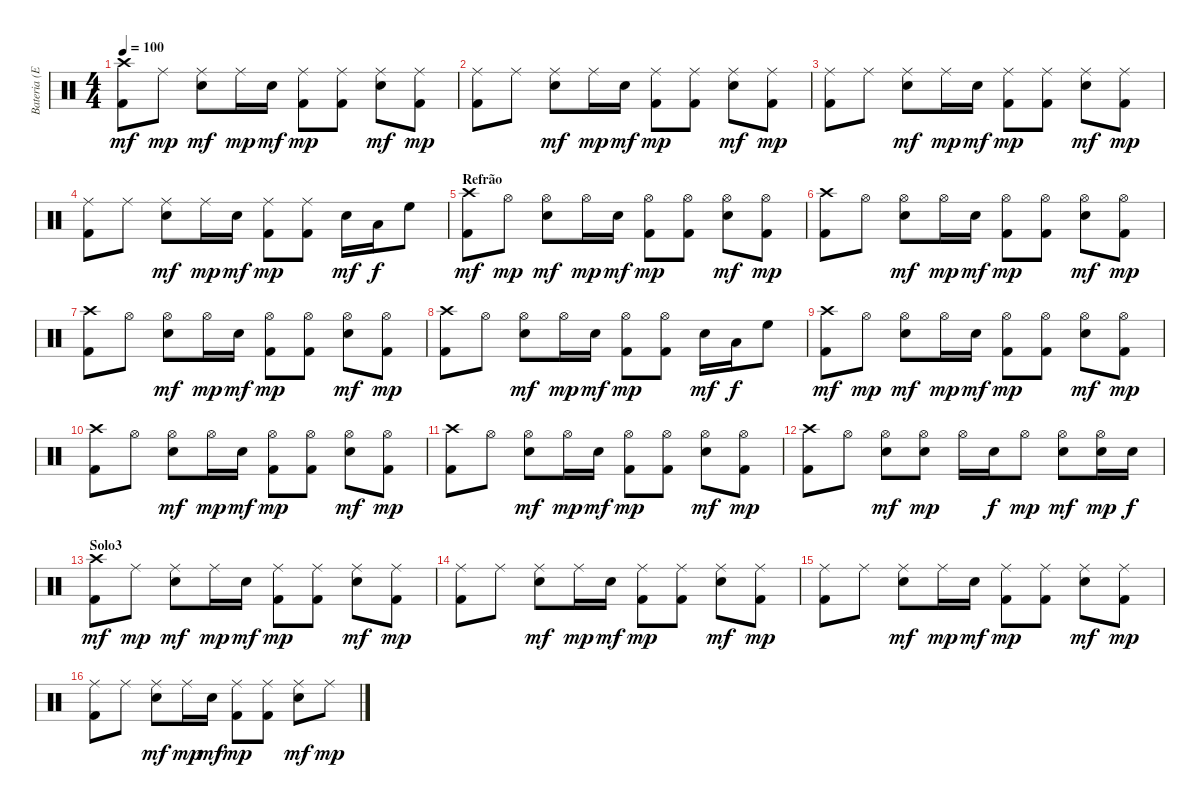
\track ("Bateria (Eduardo)" "Bateria (E") {instrument percussion}
\staff {score}
\articulation defaults
\ts (4 4)
\tempo 100
\clef neutral
\ks c
("Crash high (hit)" "Kick (hit) 2").8{dy mf} "Ride (middle)".8{dy mp} ("Ride (middle)" "Electric Snare (hit)").8{dy mf} "Ride (middle)".16{dy mp} "Electric Snare (hit)".16{dy mf} ("Ride (middle)" "Kick (hit) 2").8{dy mp} ("Ride (middle)" "Kick (hit) 2").8 ("Ride (middle)" "Electric Snare (hit)").8{dy mf} ("Ride (middle)" "Kick (hit) 2").8{dy mp} |
("Ride (middle)" "Kick (hit) 2").8 "Ride (middle)".8 ("Ride (middle)" "Electric Snare (hit)").8{dy mf} "Ride (middle)".16{dy mp} "Electric Snare (hit)".16{dy mf} ("Ride (middle)" "Kick (hit) 2").8{dy mp} ("Ride (middle)" "Kick (hit) 2").8 ("Ride (middle)" "Electric Snare (hit)").8{dy mf} ("Ride (middle)" "Kick (hit) 2").8{dy mp} |
("Ride (middle)" "Kick (hit) 2").8 "Ride (middle)".8 ("Ride (middle)" "Electric Snare (hit)").8{dy mf} "Ride (middle)".16{dy mp} "Electric Snare (hit)".16{dy mf} ("Ride (middle)" "Kick (hit) 2").8{dy mp} ("Ride (middle)" "Kick (hit) 2").8 ("Ride (middle)" "Electric Snare (hit)").8{dy mf} ("Ride (middle)" "Kick (hit) 2").8{dy mp} |
("Ride (middle)" "Kick (hit) 2").8 "Ride (middle)".8 ("Ride (middle)" "Electric Snare (hit)").8{dy mf} "Ride (middle)".16{dy mp} "Electric Snare (hit)".16{dy mf} ("Ride (middle)" "Kick (hit) 2").8{dy mp} ("Ride (middle)" "Kick (hit) 2").8 "Electric Snare (hit)".16{dy mf} "Low Tom (hit)".16{dy f} "High Floor Tom (hit)".8 |
\section ("" "Refrão")
("Crash high (hit)" "Kick (hit) 2").8{dy mf} "Hi-Hat (open)".8{dy mp} ("Hi-Hat (open)" "Electric Snare (hit)").8{dy mf} "Hi-Hat (open)".16{dy mp} "Electric Snare (hit)".16{dy mf} ("Hi-Hat (open)" "Kick (hit) 2").8{dy mp} ("Hi-Hat (open)" "Kick (hit) 2").8 ("Hi-Hat (open)" "Electric Snare (hit)").8{dy mf} ("Hi-Hat (open)" "Kick (hit) 2").8{dy mp} |
("Crash high (hit)" "Kick (hit) 2").8 "Hi-Hat (open)".8 ("Hi-Hat (open)" "Electric Snare (hit)").8{dy mf} "Hi-Hat (open)".16{dy mp} "Electric Snare (hit)".16{dy mf} ("Hi-Hat (open)" "Kick (hit) 2").8{dy mp} ("Hi-Hat (open)" "Kick (hit) 2").8 ("Hi-Hat (open)" "Electric Snare (hit)").8{dy mf} ("Hi-Hat (open)" "Kick (hit) 2").8{dy mp} |
("Crash high (hit)" "Kick (hit) 2").8 "Hi-Hat (open)".8 ("Hi-Hat (open)" "Electric Snare (hit)").8{dy mf} "Hi-Hat (open)".16{dy mp} "Electric Snare (hit)".16{dy mf} ("Hi-Hat (open)" "Kick (hit) 2").8{dy mp} ("Hi-Hat (open)" "Kick (hit) 2").8 ("Hi-Hat (open)" "Electric Snare (hit)").8{dy mf} ("Hi-Hat (open)" "Kick (hit) 2").8{dy mp} |
("Crash high (hit)" "Kick (hit) 2").8 "Hi-Hat (open)".8 ("Hi-Hat (open)" "Electric Snare (hit)").8{dy mf} "Hi-Hat (open)".16{dy mp} "Electric Snare (hit)".16{dy mf} ("Hi-Hat (open)" "Kick (hit) 2").8{dy mp} ("Hi-Hat (open)" "Kick (hit) 2").8 "Electric Snare (hit)".16{dy mf} "Low Tom (hit)".16{dy f} "High Floor Tom (hit)".8 |
("Crash high (hit)" "Kick (hit) 2").8{dy mf} "Hi-Hat (open)".8{dy mp} ("Hi-Hat (open)" "Electric Snare (hit)").8{dy mf} "Hi-Hat (open)".16{dy mp} "Electric Snare (hit)".16{dy mf} ("Hi-Hat (open)" "Kick (hit) 2").8{dy mp} ("Hi-Hat (open)" "Kick (hit) 2").8 ("Hi-Hat (open)" "Electric Snare (hit)").8{dy mf} ("Hi-Hat (open)" "Kick (hit) 2").8{dy mp} |
("Crash high (hit)" "Kick (hit) 2").8 "Hi-Hat (open)".8 ("Hi-Hat (open)" "Electric Snare (hit)").8{dy mf} "Hi-Hat (open)".16{dy mp} "Electric Snare (hit)".16{dy mf} ("Hi-Hat (open)" "Kick (hit) 2").8{dy mp} ("Hi-Hat (open)" "Kick (hit) 2").8 ("Hi-Hat (open)" "Electric Snare (hit)").8{dy mf} ("Hi-Hat (open)" "Kick (hit) 2").8{dy mp} |
("Crash high (hit)" "Kick (hit) 2").8 "Hi-Hat (open)".8 ("Hi-Hat (open)" "Electric Snare (hit)").8{dy mf} "Hi-Hat (open)".16{dy mp} "Electric Snare (hit)".16{dy mf} ("Hi-Hat (open)" "Kick (hit) 2").8{dy mp} ("Hi-Hat (open)" "Kick (hit) 2").8 ("Hi-Hat (open)" "Electric Snare (hit)").8{dy mf} ("Hi-Hat (open)" "Kick (hit) 2").8{dy mp} |
("Crash high (hit)" "Kick (hit) 2").8 "Hi-Hat (open)".8 ("Hi-Hat (open)" "Electric Snare (hit)").8{dy mf} ("Hi-Hat (open)" "Electric Snare (hit)").8{dy mp} "Hi-Hat (open)".16 "Electric Snare (hit)".16{dy f} "Hi-Hat (open)".8{dy mp} ("Hi-Hat (open)" "Electric Snare (hit)").8{dy mf} ("Hi-Hat (open)" "Electric Snare (hit)").16{dy mp} "Electric Snare (hit)".16{dy f} |
\section ("" "Solo3")
("Crash high (hit)" "Kick (hit) 2").8{dy mf} "Ride (middle)".8{dy mp} ("Ride (middle)" "Electric Snare (hit)").8{dy mf} "Ride (middle)".16{dy mp} "Electric Snare (hit)".16{dy mf} ("Ride (middle)" "Kick (hit) 2").8{dy mp} ("Ride (middle)" "Kick (hit) 2").8 ("Ride (middle)" "Electric Snare (hit)").8{dy mf} ("Ride (middle)" "Kick (hit) 2").8{dy mp} |
("Ride (middle)" "Kick (hit) 2").8 "Ride (middle)".8 ("Ride (middle)" "Electric Snare (hit)").8{dy mf} "Ride (middle)".16{dy mp} "Electric Snare (hit)".16{dy mf} ("Ride (middle)" "Kick (hit) 2").8{dy mp} ("Ride (middle)" "Kick (hit) 2").8 ("Ride (middle)" "Electric Snare (hit)").8{dy mf} ("Ride (middle)" "Kick (hit) 2").8{dy mp} |
("Ride (middle)" "Kick (hit) 2").8 "Ride (middle)".8 ("Ride (middle)" "Electric Snare (hit)").8{dy mf} "Ride (middle)".16{dy mp} "Electric Snare (hit)".16{dy mf} ("Ride (middle)" "Kick (hit) 2").8{dy mp} ("Ride (middle)" "Kick (hit) 2").8 ("Ride (middle)" "Electric Snare (hit)").8{dy mf} ("Ride (middle)" "Kick (hit) 2").8{dy mp} |
("Ride (middle)" "Kick (hit) 2").8 "Ride (middle)".8 ("Ride (middle)" "Electric Snare (hit)").8{dy mf} "Ride (middle)".16{dy mp} "Electric Snare (hit)".16{dy mf} ("Ride (middle)" "Kick (hit) 2").8{dy mp} ("Ride (middle)" "Kick (hit) 2").8 ("Ride (middle)" "Electric Snare (hit)").8{dy mf} "Ride (middle)".8{dy mp}
